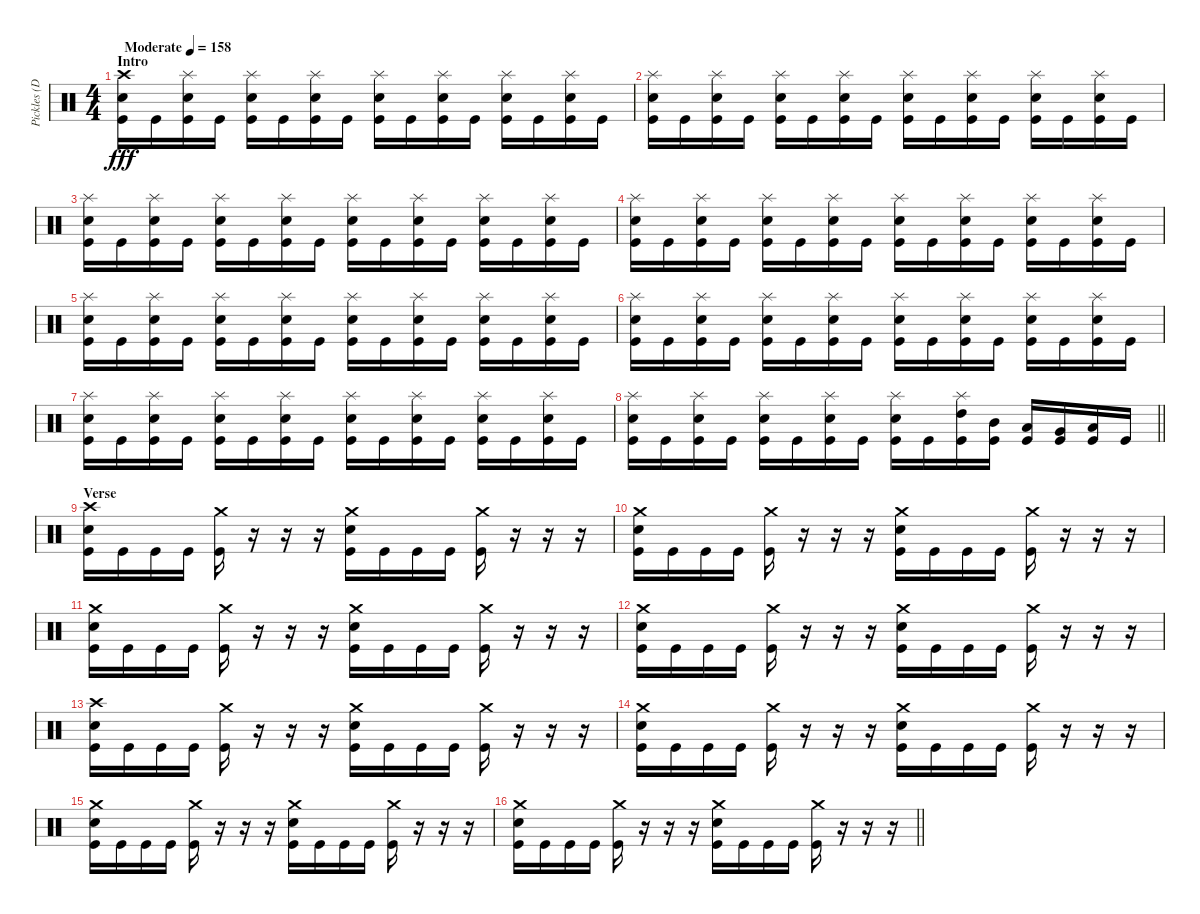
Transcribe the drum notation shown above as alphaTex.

\track ("Pickles (Drums)" "Pickles (D") {instrument percussion}
\staff {score}
\articulation defaults
\ts (4 4)
\section ("" "Intro")
\tempo (158 "Moderate")
\clef neutral
\ks c
("Crash high (hit)" "Snare (hit) 2" "Kick (hit)").16{dy fff} "Kick (hit)".16 ("Splash (hit)" "Snare (hit) 2" "Kick (hit)").16 "Kick (hit)".16 ("Splash (hit)" "Snare (hit) 2" "Kick (hit)").16 "Kick (hit)".16 ("Splash (hit)" "Snare (hit) 2" "Kick (hit)").16 "Kick (hit)".16 ("Splash (hit)" "Snare (hit) 2" "Kick (hit)").16 "Kick (hit)".16 ("Splash (hit)" "Snare (hit) 2" "Kick (hit)").16 "Kick (hit)".16 ("Splash (hit)" "Snare (hit) 2" "Kick (hit)").16 "Kick (hit)".16 ("Splash (hit)" "Snare (hit) 2" "Kick (hit)").16 "Kick (hit)".16 |
("Splash (hit)" "Snare (hit) 2" "Kick (hit)").16 "Kick (hit)".16 ("Splash (hit)" "Snare (hit) 2" "Kick (hit)").16 "Kick (hit)".16 ("Splash (hit)" "Snare (hit) 2" "Kick (hit)").16 "Kick (hit)".16 ("Splash (hit)" "Snare (hit) 2" "Kick (hit)").16 "Kick (hit)".16 ("Splash (hit)" "Snare (hit) 2" "Kick (hit)").16 "Kick (hit)".16 ("Splash (hit)" "Snare (hit) 2" "Kick (hit)").16 "Kick (hit)".16 ("Splash (hit)" "Snare (hit) 2" "Kick (hit)").16 "Kick (hit)".16 ("Splash (hit)" "Snare (hit) 2" "Kick (hit)").16 "Kick (hit)".16 |
("Splash (hit)" "Snare (hit) 2" "Kick (hit)").16 "Kick (hit)".16 ("Splash (hit)" "Snare (hit) 2" "Kick (hit)").16 "Kick (hit)".16 ("Splash (hit)" "Snare (hit) 2" "Kick (hit)").16 "Kick (hit)".16 ("Splash (hit)" "Snare (hit) 2" "Kick (hit)").16 "Kick (hit)".16 ("Splash (hit)" "Snare (hit) 2" "Kick (hit)").16 "Kick (hit)".16 ("Splash (hit)" "Snare (hit) 2" "Kick (hit)").16 "Kick (hit)".16 ("Splash (hit)" "Snare (hit) 2" "Kick (hit)").16 "Kick (hit)".16 ("Splash (hit)" "Snare (hit) 2" "Kick (hit)").16 "Kick (hit)".16 |
("Splash (hit)" "Snare (hit) 2" "Kick (hit)").16 "Kick (hit)".16 ("Splash (hit)" "Snare (hit) 2" "Kick (hit)").16 "Kick (hit)".16 ("Splash (hit)" "Snare (hit) 2" "Kick (hit)").16 "Kick (hit)".16 ("Splash (hit)" "Snare (hit) 2" "Kick (hit)").16 "Kick (hit)".16 ("Splash (hit)" "Snare (hit) 2" "Kick (hit)").16 "Kick (hit)".16 ("Splash (hit)" "Snare (hit) 2" "Kick (hit)").16 "Kick (hit)".16 ("Splash (hit)" "Snare (hit) 2" "Kick (hit)").16 "Kick (hit)".16 ("Splash (hit)" "Snare (hit) 2" "Kick (hit)").16 "Kick (hit)".16 |
("Splash (hit)" "Snare (hit) 2" "Kick (hit)").16 "Kick (hit)".16 ("Splash (hit)" "Snare (hit) 2" "Kick (hit)").16 "Kick (hit)".16 ("Splash (hit)" "Snare (hit) 2" "Kick (hit)").16 "Kick (hit)".16 ("Splash (hit)" "Snare (hit) 2" "Kick (hit)").16 "Kick (hit)".16 ("Splash (hit)" "Snare (hit) 2" "Kick (hit)").16 "Kick (hit)".16 ("Splash (hit)" "Snare (hit) 2" "Kick (hit)").16 "Kick (hit)".16 ("Splash (hit)" "Snare (hit) 2" "Kick (hit)").16 "Kick (hit)".16 ("Splash (hit)" "Snare (hit) 2" "Kick (hit)").16 "Kick (hit)".16 |
("Splash (hit)" "Snare (hit) 2" "Kick (hit)").16 "Kick (hit)".16 ("Splash (hit)" "Snare (hit) 2" "Kick (hit)").16 "Kick (hit)".16 ("Splash (hit)" "Snare (hit) 2" "Kick (hit)").16 "Kick (hit)".16 ("Splash (hit)" "Snare (hit) 2" "Kick (hit)").16 "Kick (hit)".16 ("Splash (hit)" "Snare (hit) 2" "Kick (hit)").16 "Kick (hit)".16 ("Splash (hit)" "Snare (hit) 2" "Kick (hit)").16 "Kick (hit)".16 ("Splash (hit)" "Snare (hit) 2" "Kick (hit)").16 "Kick (hit)".16 ("Splash (hit)" "Snare (hit) 2" "Kick (hit)").16 "Kick (hit)".16 |
("Splash (hit)" "Snare (hit) 2" "Kick (hit)").16 "Kick (hit)".16 ("Splash (hit)" "Snare (hit) 2" "Kick (hit)").16 "Kick (hit)".16 ("Splash (hit)" "Snare (hit) 2" "Kick (hit)").16 "Kick (hit)".16 ("Splash (hit)" "Snare (hit) 2" "Kick (hit)").16 "Kick (hit)".16 ("Splash (hit)" "Snare (hit) 2" "Kick (hit)").16 "Kick (hit)".16 ("Splash (hit)" "Snare (hit) 2" "Kick (hit)").16 "Kick (hit)".16 ("Splash (hit)" "Snare (hit) 2" "Kick (hit)").16 "Kick (hit)".16 ("Splash (hit)" "Snare (hit) 2" "Kick (hit)").16 "Kick (hit)".16 |
\barLineRight lightlight
("Splash (hit)" "Snare (hit) 2" "Kick (hit)").16 "Kick (hit)".16 ("Splash (hit)" "Snare (hit) 2" "Kick (hit)").16 "Kick (hit)".16 ("Splash (hit)" "Snare (hit) 2" "Kick (hit)").16 "Kick (hit)".16 ("Splash (hit)" "Snare (hit) 2" "Kick (hit)").16 "Kick (hit)".16 ("Splash (hit)" "Snare (hit) 2" "Kick (hit)").16 "Kick (hit)".16 ("Splash (hit)" "High Tom (hit)" "Kick (hit)").16 ("Mid Tom (hit)" "Kick (hit)").16 ("Low Tom (hit)" "Kick (hit)").16 ("Very Low Tom (hit)" "Kick (hit)").16 ("Low Floor Tom (hit)" "Kick (hit)").16 "Kick (hit)".16 |
\section ("" "Verse")
("Crash high (hit)" "Snare (hit) 2" "Kick (hit)").16 "Kick (hit)".16 "Kick (hit)".16 "Kick (hit)".16 ("Crash medium (hit)" "Kick (hit)").16 r.16 r.16 r.16 ("Crash medium (hit)" "Snare (hit) 2" "Kick (hit)").16 "Kick (hit)".16 "Kick (hit)".16 "Kick (hit)".16 ("Crash medium (hit)" "Kick (hit)").16 r.16 r.16 r.16 |
("Crash medium (hit)" "Snare (hit) 2" "Kick (hit)").16 "Kick (hit)".16 "Kick (hit)".16 "Kick (hit)".16 ("Crash medium (hit)" "Kick (hit)").16 r.16 r.16 r.16 ("Crash medium (hit)" "Snare (hit) 2" "Kick (hit)").16 "Kick (hit)".16 "Kick (hit)".16 "Kick (hit)".16 ("Crash medium (hit)" "Kick (hit)").16 r.16 r.16 r.16 |
("Crash medium (hit)" "Snare (hit) 2" "Kick (hit)").16 "Kick (hit)".16 "Kick (hit)".16 "Kick (hit)".16 ("Crash medium (hit)" "Kick (hit)").16 r.16 r.16 r.16 ("Crash medium (hit)" "Snare (hit) 2" "Kick (hit)").16 "Kick (hit)".16 "Kick (hit)".16 "Kick (hit)".16 ("Crash medium (hit)" "Kick (hit)").16 r.16 r.16 r.16 |
("Crash medium (hit)" "Snare (hit) 2" "Kick (hit)").16 "Kick (hit)".16 "Kick (hit)".16 "Kick (hit)".16 ("Crash medium (hit)" "Kick (hit)").16 r.16 r.16 r.16 ("Crash medium (hit)" "Snare (hit) 2" "Kick (hit)").16 "Kick (hit)".16 "Kick (hit)".16 "Kick (hit)".16 ("Crash medium (hit)" "Kick (hit)").16 r.16 r.16 r.16 |
("Crash high (hit)" "Snare (hit) 2" "Kick (hit)").16 "Kick (hit)".16 "Kick (hit)".16 "Kick (hit)".16 ("Crash medium (hit)" "Kick (hit)").16 r.16 r.16 r.16 ("Crash medium (hit)" "Snare (hit) 2" "Kick (hit)").16 "Kick (hit)".16 "Kick (hit)".16 "Kick (hit)".16 ("Crash medium (hit)" "Kick (hit)").16 r.16 r.16 r.16 |
("Crash medium (hit)" "Snare (hit) 2" "Kick (hit)").16 "Kick (hit)".16 "Kick (hit)".16 "Kick (hit)".16 ("Crash medium (hit)" "Kick (hit)").16 r.16 r.16 r.16 ("Crash medium (hit)" "Snare (hit) 2" "Kick (hit)").16 "Kick (hit)".16 "Kick (hit)".16 "Kick (hit)".16 ("Crash medium (hit)" "Kick (hit)").16 r.16 r.16 r.16 |
("Crash medium (hit)" "Snare (hit) 2" "Kick (hit)").16 "Kick (hit)".16 "Kick (hit)".16 "Kick (hit)".16 ("Crash medium (hit)" "Kick (hit)").16 r.16 r.16 r.16 ("Crash medium (hit)" "Snare (hit) 2" "Kick (hit)").16 "Kick (hit)".16 "Kick (hit)".16 "Kick (hit)".16 ("Crash medium (hit)" "Kick (hit)").16 r.16 r.16 r.16 |
\barLineRight lightlight
("Crash medium (hit)" "Snare (hit) 2" "Kick (hit)").16 "Kick (hit)".16 "Kick (hit)".16 "Kick (hit)".16 ("Crash medium (hit)" "Kick (hit)").16 r.16 r.16 r.16 ("Crash medium (hit)" "Snare (hit) 2" "Kick (hit)").16 "Kick (hit)".16 "Kick (hit)".16 "Kick (hit)".16 ("Crash medium (hit)" "Kick (hit)").16 r.16 r.16 r.16
